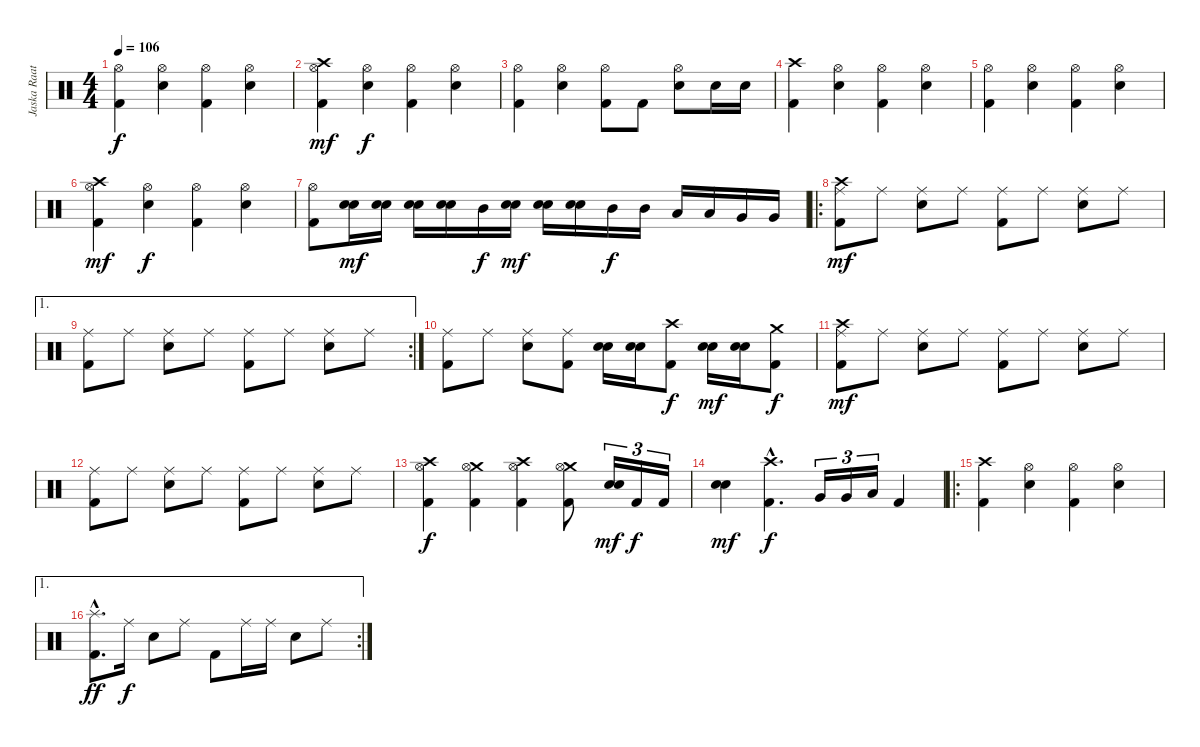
\track ("Jaska Raatikainen" "Jaska Raat") {instrument percussion}
\staff {score}
\articulation defaults
\ts (4 4)
\tempo 106
\clef neutral
\ks c
("Kick (hit) 2" "Hi-Hat (open)").4{dy f} ("Hi-Hat (open)" "Snare (hit) 2").4 ("Kick (hit) 2" "Hi-Hat (open)").4 ("Hi-Hat (open)" "Snare (hit) 2").4 |
("Kick (hit) 2" "Crash high (hit)" "Hi-Hat (open)").4{dy mf} ("Hi-Hat (open)" "Snare (hit) 2").4{dy f} ("Kick (hit) 2" "Hi-Hat (open)").4 ("Hi-Hat (open)" "Snare (hit) 2").4 |
("Kick (hit) 2" "Hi-Hat (open)").4 ("Hi-Hat (open)" "Snare (hit) 2").4 ("Kick (hit) 2" "Hi-Hat (open)").8 "Kick (hit) 2".8 ("Hi-Hat (open)" "Snare (hit) 2").8 "Snare (hit) 2".16 "Snare (hit) 2".16 |
("Kick (hit) 2" "Crash high (hit)").4 ("Hi-Hat (open)" "Snare (hit) 2").4 ("Kick (hit) 2" "Hi-Hat (open)").4 ("Hi-Hat (open)" "Snare (hit) 2").4 |
("Kick (hit) 2" "Hi-Hat (open)").4 ("Hi-Hat (open)" "Snare (hit) 2").4 ("Kick (hit) 2" "Hi-Hat (open)").4 ("Hi-Hat (open)" "Snare (hit) 2").4 |
("Kick (hit) 2" "Crash high (hit)" "Hi-Hat (open)").4{dy mf} ("Hi-Hat (open)" "Snare (hit) 2").4{dy f} ("Kick (hit) 2" "Hi-Hat (open)").4 ("Hi-Hat (open)" "Snare (hit) 2").4 |
("Kick (hit) 2" "Hi-Hat (open)").8 ("Electric Snare (hit)" "Snare (hit) 2").16{dy mf} ("Electric Snare (hit)" "Snare (hit) 2").16 ("Electric Snare (hit)" "Snare (hit) 2").16 ("Electric Snare (hit)" "Snare (hit) 2").16 "Mid Tom (hit)".16{dy f} ("Electric Snare (hit)" "Snare (hit) 2").16{dy mf} ("Electric Snare (hit)" "Snare (hit) 2").16 ("Electric Snare (hit)" "Snare (hit) 2").16 "Mid Tom (hit)".16{dy f} "Mid Tom (hit)".16 "Low Tom (hit)".16 "Low Tom (hit)".16 "Very Low Tom (hit)".16 "Very Low Tom (hit)".16 |
\ro
("Kick (hit) 2" "Crash high (hit)" "Ride (middle)").8{dy mf} "Ride (middle)".8 ("Ride (middle)" "Snare (hit) 2").8 "Ride (middle)".8 ("Kick (hit) 2" "Ride (middle)").8 "Ride (middle)".8 ("Ride (middle)" "Snare (hit) 2").8 "Ride (middle)".8 |
\ae 1
\rc 2
("Kick (hit) 2" "Ride (middle)").8 "Ride (middle)".8 ("Ride (middle)" "Snare (hit) 2").8 "Ride (middle)".8 ("Kick (hit) 2" "Ride (middle)").8 "Ride (middle)".8 ("Ride (middle)" "Snare (hit) 2").8 "Ride (middle)".8 |
("Kick (hit) 2" "Ride (middle)").8 "Ride (middle)".8 ("Ride (middle)" "Snare (hit) 2").8 ("Kick (hit) 2" "Ride (middle)").8 ("Electric Snare (hit)" "Snare (hit) 2").16 ("Electric Snare (hit)" "Snare (hit) 2").16 ("Kick (hit) 2" "Crash high (hit)").8{dy f} ("Electric Snare (hit)" "Snare (hit) 2").16{dy mf} ("Electric Snare (hit)" "Snare (hit) 2").16 ("Kick (hit) 2" "Crash medium (hit)").8{dy f} |
("Kick (hit) 2" "Crash high (hit)" "Ride (middle)").8{dy mf} "Ride (middle)".8 ("Ride (middle)" "Snare (hit) 2").8 "Ride (middle)".8 ("Kick (hit) 2" "Ride (middle)").8 "Ride (middle)".8 ("Ride (middle)" "Snare (hit) 2").8 "Ride (middle)".8 |
("Kick (hit) 2" "Ride (middle)").8 "Ride (middle)".8 ("Ride (middle)" "Snare (hit) 2").8 "Ride (middle)".8 ("Kick (hit) 2" "Ride (middle)").8 "Ride (middle)".8 ("Ride (middle)" "Snare (hit) 2").8 "Ride (middle)".8 |
("Kick (hit) 2" "Crash high (hit)" "Hi-Hat (open)").4{dy f} ("Kick (hit) 2" "Crash medium (hit)" "Hi-Hat (open)").4 ("Kick (hit) 2" "Crash high (hit)" "Hi-Hat (open)").4 ("Kick (hit) 2" "Crash medium (hit)" "Hi-Hat (open)").8 ("Electric Snare (hit)" "Snare (hit) 2").16{tu (3 2) dy mf} "Kick (hit) 2".16{tu (3 2) dy f} "Kick (hit) 2".16{tu (3 2)} |
("Electric Snare (hit)" "Snare (hit) 2").4{dy mf} ("Kick (hit) 2"{hac} "Crash high (hit)"{hac}).4{d dy f} "Very Low Tom (hit)".16{tu (3 2)} "Very Low Tom (hit)".16{tu (3 2)} "Low Floor Tom (hit)".16{tu (3 2)} "Kick (hit) 2".4 |
\ro
("Kick (hit) 2" "Crash high (hit)").4 ("Hi-Hat (open)" "Snare (hit) 2").4 ("Kick (hit) 2" "Hi-Hat (open)").4 ("Hi-Hat (open)" "Snare (hit) 2").4 |
\ae 1
\rc 2
("Kick (hit) 2"{hac} "Splash (hit)"{hac}).8{d dy ff} "Ride (middle)".16{dy f} "Snare (hit) 2".8 "Ride (middle)".8 "Kick (hit) 2".8 "Ride (middle)".16 "Ride (middle)".16 "Snare (hit) 2".8 "Ride (middle)".8
